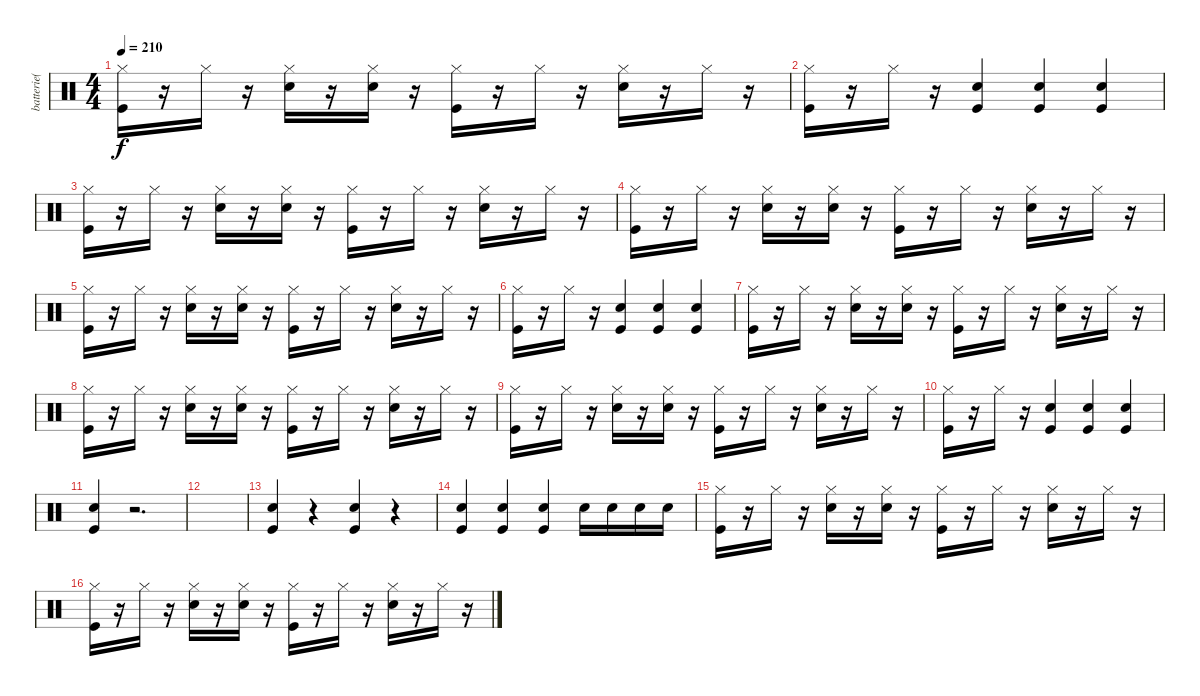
\track ("batterie( Michael Davison )" "batterie( ") {instrument percussion}
\staff {score}
\articulation defaults
\ts (4 4)
\tempo 210
\clef neutral
\ks c
("Hi-Hat (closed)" "Kick (hit)").16{dy f} r.16 "Hi-Hat (closed)".16 r.16 ("Hi-Hat (closed)" "Snare (hit) 2").16 r.16 ("Hi-Hat (closed)" "Snare (hit) 2").16 r.16 ("Hi-Hat (closed)" "Kick (hit)").16 r.16 "Hi-Hat (closed)".16 r.16 ("Hi-Hat (closed)" "Snare (hit) 2").16 r.16 "Hi-Hat (closed)".16 r.16 |
("Hi-Hat (closed)" "Kick (hit)").16 r.16 "Hi-Hat (closed)".16 r.16 ("Snare (hit) 2" "Kick (hit)").4 ("Snare (hit) 2" "Kick (hit)").4 ("Snare (hit) 2" "Kick (hit)").4 |
("Hi-Hat (closed)" "Kick (hit)").16 r.16 "Hi-Hat (closed)".16 r.16 ("Hi-Hat (closed)" "Snare (hit) 2").16 r.16 ("Hi-Hat (closed)" "Snare (hit) 2").16 r.16 ("Hi-Hat (closed)" "Kick (hit)").16 r.16 "Hi-Hat (closed)".16 r.16 ("Hi-Hat (closed)" "Snare (hit) 2").16 r.16 "Hi-Hat (closed)".16 r.16 |
("Hi-Hat (closed)" "Kick (hit)").16 r.16 "Hi-Hat (closed)".16 r.16 ("Hi-Hat (closed)" "Snare (hit) 2").16 r.16 ("Hi-Hat (closed)" "Snare (hit) 2").16 r.16 ("Hi-Hat (closed)" "Kick (hit)").16 r.16 "Hi-Hat (closed)".16 r.16 ("Hi-Hat (closed)" "Snare (hit) 2").16 r.16 "Hi-Hat (closed)".16 r.16 |
("Hi-Hat (closed)" "Kick (hit)").16 r.16 "Hi-Hat (closed)".16 r.16 ("Hi-Hat (closed)" "Snare (hit) 2").16 r.16 ("Hi-Hat (closed)" "Snare (hit) 2").16 r.16 ("Hi-Hat (closed)" "Kick (hit)").16 r.16 "Hi-Hat (closed)".16 r.16 ("Hi-Hat (closed)" "Snare (hit) 2").16 r.16 "Hi-Hat (closed)".16 r.16 |
("Hi-Hat (closed)" "Kick (hit)").16 r.16 "Hi-Hat (closed)".16 r.16 ("Snare (hit) 2" "Kick (hit)").4 ("Snare (hit) 2" "Kick (hit)").4 ("Snare (hit) 2" "Kick (hit)").4 |
("Hi-Hat (closed)" "Kick (hit)").16 r.16 "Hi-Hat (closed)".16 r.16 ("Hi-Hat (closed)" "Snare (hit) 2").16 r.16 ("Hi-Hat (closed)" "Snare (hit) 2").16 r.16 ("Hi-Hat (closed)" "Kick (hit)").16 r.16 "Hi-Hat (closed)".16 r.16 ("Hi-Hat (closed)" "Snare (hit) 2").16 r.16 "Hi-Hat (closed)".16 r.16 |
("Hi-Hat (closed)" "Kick (hit)").16 r.16 "Hi-Hat (closed)".16 r.16 ("Hi-Hat (closed)" "Snare (hit) 2").16 r.16 ("Hi-Hat (closed)" "Snare (hit) 2").16 r.16 ("Hi-Hat (closed)" "Kick (hit)").16 r.16 "Hi-Hat (closed)".16 r.16 ("Hi-Hat (closed)" "Snare (hit) 2").16 r.16 "Hi-Hat (closed)".16 r.16 |
("Hi-Hat (closed)" "Kick (hit)").16 r.16 "Hi-Hat (closed)".16 r.16 ("Hi-Hat (closed)" "Snare (hit) 2").16 r.16 ("Hi-Hat (closed)" "Snare (hit) 2").16 r.16 ("Hi-Hat (closed)" "Kick (hit)").16 r.16 "Hi-Hat (closed)".16 r.16 ("Hi-Hat (closed)" "Snare (hit) 2").16 r.16 "Hi-Hat (closed)".16 r.16 |
("Hi-Hat (closed)" "Kick (hit)").16 r.16 "Hi-Hat (closed)".16 r.16 ("Snare (hit) 2" "Kick (hit)").4 ("Snare (hit) 2" "Kick (hit)").4 ("Snare (hit) 2" "Kick (hit)").4 |
("Snare (hit) 2" "Kick (hit)").4 r.2{d} |
|
("Snare (hit) 2" "Kick (hit)").4 r.4 ("Snare (hit) 2" "Kick (hit)").4 r.4 |
("Snare (hit) 2" "Kick (hit)").4 ("Snare (hit) 2" "Kick (hit)").4 ("Snare (hit) 2" "Kick (hit)").4 "Snare (hit) 2".16 "Snare (hit) 2".16 "Snare (hit) 2".16 "Snare (hit) 2".16 |
("Hi-Hat (closed)" "Kick (hit)").16 r.16 "Hi-Hat (closed)".16 r.16 ("Hi-Hat (closed)" "Snare (hit) 2").16 r.16 ("Hi-Hat (closed)" "Snare (hit) 2").16 r.16 ("Hi-Hat (closed)" "Kick (hit)").16 r.16 "Hi-Hat (closed)".16 r.16 ("Hi-Hat (closed)" "Snare (hit) 2").16 r.16 "Hi-Hat (closed)".16 r.16 |
("Hi-Hat (closed)" "Kick (hit)").16 r.16 "Hi-Hat (closed)".16 r.16 ("Hi-Hat (closed)" "Snare (hit) 2").16 r.16 ("Hi-Hat (closed)" "Snare (hit) 2").16 r.16 ("Hi-Hat (closed)" "Kick (hit)").16 r.16 "Hi-Hat (closed)".16 r.16 ("Hi-Hat (closed)" "Snare (hit) 2").16 r.16 "Hi-Hat (closed)".16 r.16
